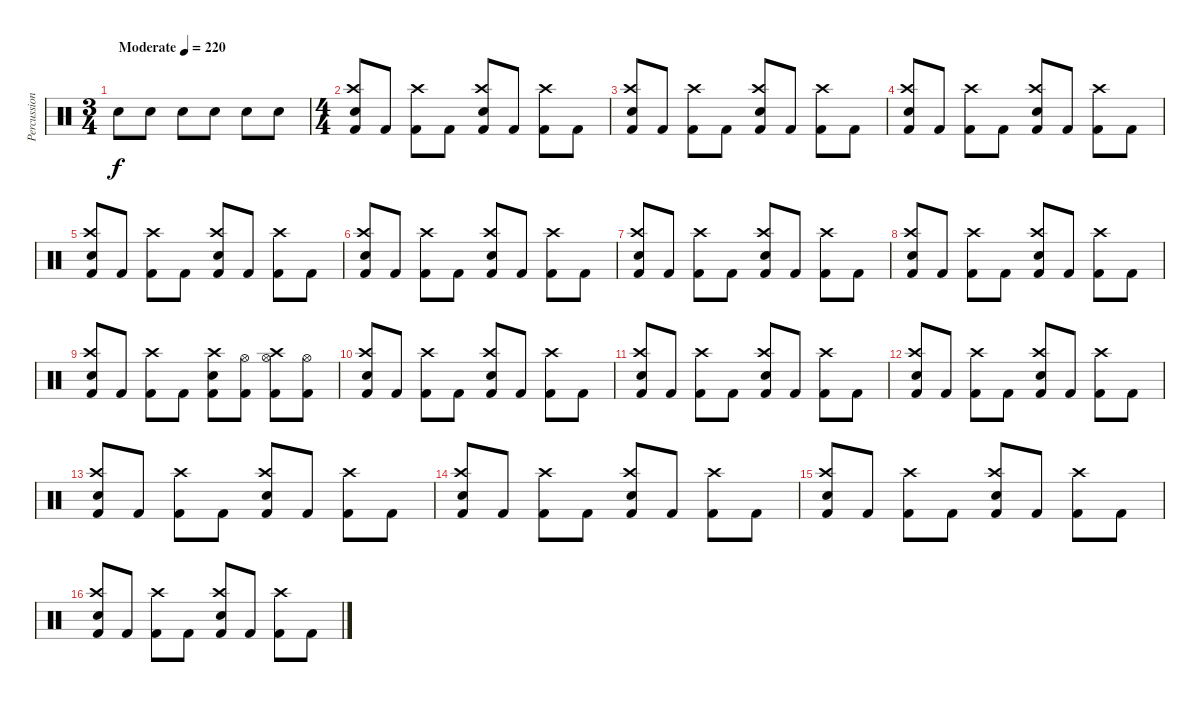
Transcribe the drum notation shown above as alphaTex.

\track ("Percussions" "Percussion") {instrument percussion}
\staff {score}
\articulation defaults
\ts (3 4)
\tempo (220 "Moderate")
\clef neutral
\ks c "Electric Snare (hit)".8{dy f} "Electric Snare (hit)".8 "Electric Snare (hit)".8 "Electric Snare (hit)".8 "Electric Snare (hit)".8 "Electric Snare (hit)".8
|
\ts (4 4)
("Crash high (hit)" "Electric Snare (hit)" "Kick (hit) 2").8 "Kick (hit) 2".8 ("Crash high (hit)" "Kick (hit) 2").8 "Kick (hit) 2".8 ("Crash high (hit)" "Electric Snare (hit)" "Kick (hit) 2").8 "Kick (hit) 2".8 ("Crash high (hit)" "Kick (hit) 2").8 "Kick (hit) 2".8 |
("Crash high (hit)" "Electric Snare (hit)" "Kick (hit) 2").8 "Kick (hit) 2".8 ("Crash high (hit)" "Kick (hit) 2").8 "Kick (hit) 2".8 ("Crash high (hit)" "Electric Snare (hit)" "Kick (hit) 2").8 "Kick (hit) 2".8 ("Crash high (hit)" "Kick (hit) 2").8 "Kick (hit) 2".8 |
("Crash high (hit)" "Electric Snare (hit)" "Kick (hit) 2").8 "Kick (hit) 2".8 ("Crash high (hit)" "Kick (hit) 2").8 "Kick (hit) 2".8 ("Crash high (hit)" "Electric Snare (hit)" "Kick (hit) 2").8 "Kick (hit) 2".8 ("Crash high (hit)" "Kick (hit) 2").8 "Kick (hit) 2".8 |
("Crash high (hit)" "Electric Snare (hit)" "Kick (hit) 2").8 "Kick (hit) 2".8 ("Crash high (hit)" "Kick (hit) 2").8 "Kick (hit) 2".8 ("Crash high (hit)" "Electric Snare (hit)" "Kick (hit) 2").8 "Kick (hit) 2".8 ("Crash high (hit)" "Kick (hit) 2").8 "Kick (hit) 2".8 |
("Crash high (hit)" "Electric Snare (hit)" "Kick (hit) 2").8 "Kick (hit) 2".8 ("Crash high (hit)" "Kick (hit) 2").8 "Kick (hit) 2".8 ("Crash high (hit)" "Electric Snare (hit)" "Kick (hit) 2").8 "Kick (hit) 2".8 ("Crash high (hit)" "Kick (hit) 2").8 "Kick (hit) 2".8 |
("Crash high (hit)" "Electric Snare (hit)" "Kick (hit) 2").8 "Kick (hit) 2".8 ("Crash high (hit)" "Kick (hit) 2").8 "Kick (hit) 2".8 ("Crash high (hit)" "Electric Snare (hit)" "Kick (hit) 2").8 "Kick (hit) 2".8 ("Crash high (hit)" "Kick (hit) 2").8 "Kick (hit) 2".8 |
("Crash high (hit)" "Electric Snare (hit)" "Kick (hit) 2").8 "Kick (hit) 2".8 ("Crash high (hit)" "Kick (hit) 2").8 "Kick (hit) 2".8 ("Crash high (hit)" "Electric Snare (hit)" "Kick (hit) 2").8 "Kick (hit) 2".8 ("Crash high (hit)" "Kick (hit) 2").8 "Kick (hit) 2".8 |
("Crash high (hit)" "Electric Snare (hit)" "Kick (hit) 2").8 "Kick (hit) 2".8 ("Crash high (hit)" "Kick (hit) 2").8 "Kick (hit) 2".8 ("Crash high (hit)" "Electric Snare (hit)" "Kick (hit) 2").8 ("Hi-Hat (open)" "Kick (hit) 2").8 ("Crash high (hit)" "Hi-Hat (open)" "Kick (hit) 2").8 ("Hi-Hat (open)" "Kick (hit) 2").8 |
("Crash high (hit)" "Electric Snare (hit)" "Kick (hit) 2").8 "Kick (hit) 2".8 ("Crash high (hit)" "Kick (hit) 2").8 "Kick (hit) 2".8 ("Crash high (hit)" "Electric Snare (hit)" "Kick (hit) 2").8 "Kick (hit) 2".8 ("Crash high (hit)" "Kick (hit) 2").8 "Kick (hit) 2".8 |
("Crash high (hit)" "Electric Snare (hit)" "Kick (hit) 2").8 "Kick (hit) 2".8 ("Crash high (hit)" "Kick (hit) 2").8 "Kick (hit) 2".8 ("Crash high (hit)" "Electric Snare (hit)" "Kick (hit) 2").8 "Kick (hit) 2".8 ("Crash high (hit)" "Kick (hit) 2").8 "Kick (hit) 2".8 |
("Crash high (hit)" "Electric Snare (hit)" "Kick (hit) 2").8 "Kick (hit) 2".8 ("Crash high (hit)" "Kick (hit) 2").8 "Kick (hit) 2".8 ("Crash high (hit)" "Electric Snare (hit)" "Kick (hit) 2").8 "Kick (hit) 2".8 ("Crash high (hit)" "Kick (hit) 2").8 "Kick (hit) 2".8 |
("Crash high (hit)" "Electric Snare (hit)" "Kick (hit) 2").8 "Kick (hit) 2".8 ("Crash high (hit)" "Kick (hit) 2").8 "Kick (hit) 2".8 ("Crash high (hit)" "Electric Snare (hit)" "Kick (hit) 2").8 "Kick (hit) 2".8 ("Crash high (hit)" "Kick (hit) 2").8 "Kick (hit) 2".8 |
("Crash high (hit)" "Electric Snare (hit)" "Kick (hit) 2").8 "Kick (hit) 2".8 ("Crash high (hit)" "Kick (hit) 2").8 "Kick (hit) 2".8 ("Crash high (hit)" "Electric Snare (hit)" "Kick (hit) 2").8 "Kick (hit) 2".8 ("Crash high (hit)" "Kick (hit) 2").8 "Kick (hit) 2".8 |
("Crash high (hit)" "Electric Snare (hit)" "Kick (hit) 2").8 "Kick (hit) 2".8 ("Crash high (hit)" "Kick (hit) 2").8 "Kick (hit) 2".8 ("Crash high (hit)" "Electric Snare (hit)" "Kick (hit) 2").8 "Kick (hit) 2".8 ("Crash high (hit)" "Kick (hit) 2").8 "Kick (hit) 2".8 |
("Crash high (hit)" "Electric Snare (hit)" "Kick (hit) 2").8 "Kick (hit) 2".8 ("Crash high (hit)" "Kick (hit) 2").8 "Kick (hit) 2".8 ("Crash high (hit)" "Electric Snare (hit)" "Kick (hit) 2").8 "Kick (hit) 2".8 ("Crash high (hit)" "Kick (hit) 2").8 "Kick (hit) 2".8
